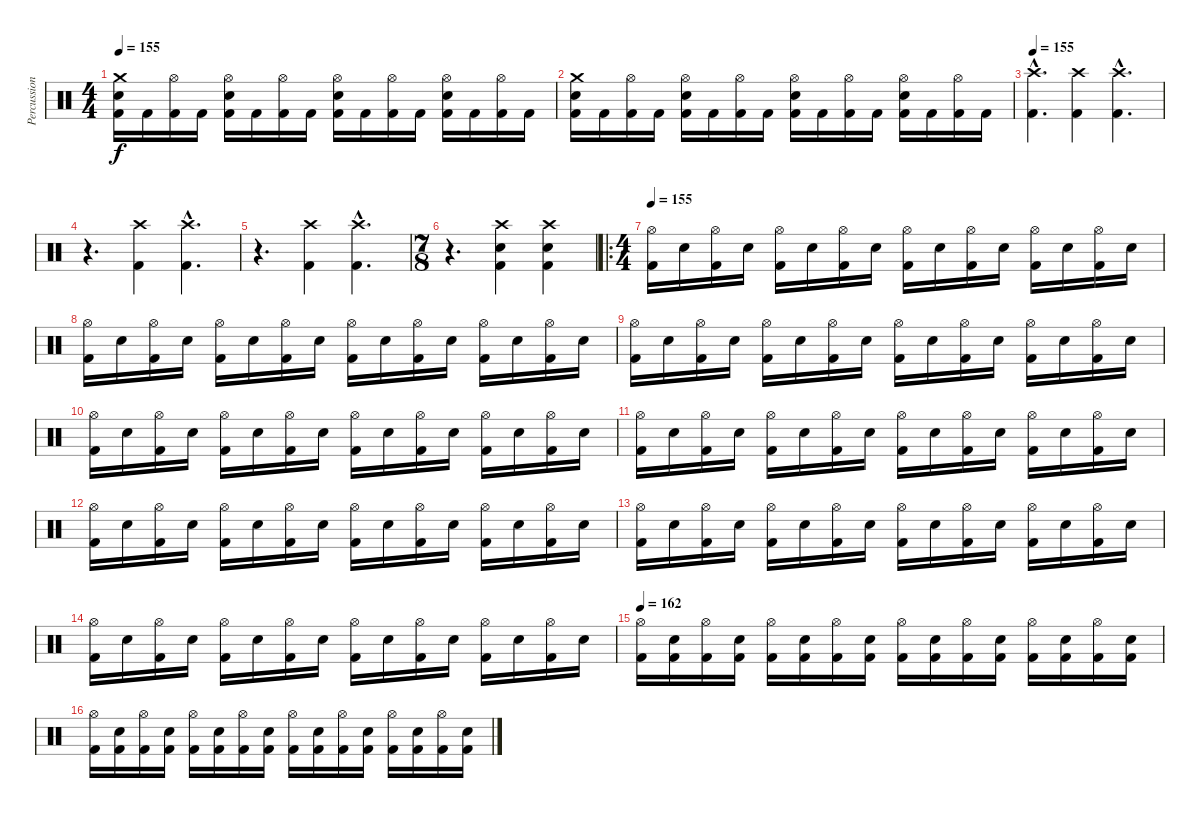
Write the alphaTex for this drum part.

\track ("Percussion" "Percussion") {instrument percussion}
\staff {score}
\articulation defaults
\ts (4 4)
\tempo 155
\clef neutral
\ks c
("Crash medium (hit)" "Electric Snare (hit)" "Kick (hit) 2").16{dy f} "Kick (hit) 2".16 ("Hi-Hat (open)" "Kick (hit) 2").16 "Kick (hit) 2".16 ("Hi-Hat (open)" "Electric Snare (hit)" "Kick (hit) 2").16 "Kick (hit) 2".16 ("Hi-Hat (open)" "Kick (hit) 2").16 "Kick (hit) 2".16 ("Hi-Hat (open)" "Electric Snare (hit)" "Kick (hit) 2").16 "Kick (hit) 2".16 ("Hi-Hat (open)" "Kick (hit) 2").16 "Kick (hit) 2".16 ("Hi-Hat (open)" "Electric Snare (hit)" "Kick (hit) 2").16 "Kick (hit) 2".16 ("Hi-Hat (open)" "Kick (hit) 2").16 "Kick (hit) 2".16 |
("Crash medium (hit)" "Electric Snare (hit)" "Kick (hit) 2").16 "Kick (hit) 2".16 ("Hi-Hat (open)" "Kick (hit) 2").16 "Kick (hit) 2".16 ("Hi-Hat (open)" "Electric Snare (hit)" "Kick (hit) 2").16 "Kick (hit) 2".16 ("Hi-Hat (open)" "Kick (hit) 2").16 "Kick (hit) 2".16 ("Hi-Hat (open)" "Electric Snare (hit)" "Kick (hit) 2").16 "Kick (hit) 2".16 ("Hi-Hat (open)" "Kick (hit) 2").16 "Kick (hit) 2".16 ("Hi-Hat (open)" "Electric Snare (hit)" "Kick (hit) 2").16 "Kick (hit) 2".16 ("Hi-Hat (open)" "Kick (hit) 2").16 "Kick (hit) 2".16 |
\tempo 155
("Crash high (hit)"{hac} "Kick (hit) 2"{hac}).4{d} ("Crash high (hit)" "Kick (hit) 2").4 ("Crash high (hit)"{hac} "Kick (hit) 2"{hac}).4{d} |
r.4{d} ("Crash high (hit)" "Kick (hit) 2").4 ("Crash high (hit)"{hac} "Kick (hit) 2"{hac}).4{d} |
r.4{d} ("Crash high (hit)" "Kick (hit) 2").4 ("Crash high (hit)"{hac} "Kick (hit) 2"{hac}).4{d} |
\ts (7 8)
r.4{d} ("Crash high (hit)" "Electric Snare (hit)" "Kick (hit) 2").4 ("Crash high (hit)" "Electric Snare (hit)" "Kick (hit) 2").4 |
\ro
\ts (4 4)
\tempo 155
("Hi-Hat (open)" "Kick (hit) 2").16 "Electric Snare (hit)".16 ("Hi-Hat (open)" "Kick (hit) 2").16 "Electric Snare (hit)".16 ("Hi-Hat (open)" "Kick (hit) 2").16 "Electric Snare (hit)".16 ("Hi-Hat (open)" "Kick (hit) 2").16 "Electric Snare (hit)".16 ("Hi-Hat (open)" "Kick (hit) 2").16 "Electric Snare (hit)".16 ("Hi-Hat (open)" "Kick (hit) 2").16 "Electric Snare (hit)".16 ("Hi-Hat (open)" "Kick (hit) 2").16 "Electric Snare (hit)".16 ("Hi-Hat (open)" "Kick (hit) 2").16 "Electric Snare (hit)".16 |
("Hi-Hat (open)" "Kick (hit) 2").16 "Electric Snare (hit)".16 ("Hi-Hat (open)" "Kick (hit) 2").16 "Electric Snare (hit)".16 ("Hi-Hat (open)" "Kick (hit) 2").16 "Electric Snare (hit)".16 ("Hi-Hat (open)" "Kick (hit) 2").16 "Electric Snare (hit)".16 ("Hi-Hat (open)" "Kick (hit) 2").16 "Electric Snare (hit)".16 ("Hi-Hat (open)" "Kick (hit) 2").16 "Electric Snare (hit)".16 ("Hi-Hat (open)" "Kick (hit) 2").16 "Electric Snare (hit)".16 ("Hi-Hat (open)" "Kick (hit) 2").16 "Electric Snare (hit)".16 |
("Hi-Hat (open)" "Kick (hit) 2").16 "Electric Snare (hit)".16 ("Hi-Hat (open)" "Kick (hit) 2").16 "Electric Snare (hit)".16 ("Hi-Hat (open)" "Kick (hit) 2").16 "Electric Snare (hit)".16 ("Hi-Hat (open)" "Kick (hit) 2").16 "Electric Snare (hit)".16 ("Hi-Hat (open)" "Kick (hit) 2").16 "Electric Snare (hit)".16 ("Hi-Hat (open)" "Kick (hit) 2").16 "Electric Snare (hit)".16 ("Hi-Hat (open)" "Kick (hit) 2").16 "Electric Snare (hit)".16 ("Hi-Hat (open)" "Kick (hit) 2").16 "Electric Snare (hit)".16 |
("Hi-Hat (open)" "Kick (hit) 2").16 "Electric Snare (hit)".16 ("Hi-Hat (open)" "Kick (hit) 2").16 "Electric Snare (hit)".16 ("Hi-Hat (open)" "Kick (hit) 2").16 "Electric Snare (hit)".16 ("Hi-Hat (open)" "Kick (hit) 2").16 "Electric Snare (hit)".16 ("Hi-Hat (open)" "Kick (hit) 2").16 "Electric Snare (hit)".16 ("Hi-Hat (open)" "Kick (hit) 2").16 "Electric Snare (hit)".16 ("Hi-Hat (open)" "Kick (hit) 2").16 "Electric Snare (hit)".16 ("Hi-Hat (open)" "Kick (hit) 2").16 "Electric Snare (hit)".16 |
("Hi-Hat (open)" "Kick (hit) 2").16 "Electric Snare (hit)".16 ("Hi-Hat (open)" "Kick (hit) 2").16 "Electric Snare (hit)".16 ("Hi-Hat (open)" "Kick (hit) 2").16 "Electric Snare (hit)".16 ("Hi-Hat (open)" "Kick (hit) 2").16 "Electric Snare (hit)".16 ("Hi-Hat (open)" "Kick (hit) 2").16 "Electric Snare (hit)".16 ("Hi-Hat (open)" "Kick (hit) 2").16 "Electric Snare (hit)".16 ("Hi-Hat (open)" "Kick (hit) 2").16 "Electric Snare (hit)".16 ("Hi-Hat (open)" "Kick (hit) 2").16 "Electric Snare (hit)".16 |
("Hi-Hat (open)" "Kick (hit) 2").16 "Electric Snare (hit)".16 ("Hi-Hat (open)" "Kick (hit) 2").16 "Electric Snare (hit)".16 ("Hi-Hat (open)" "Kick (hit) 2").16 "Electric Snare (hit)".16 ("Hi-Hat (open)" "Kick (hit) 2").16 "Electric Snare (hit)".16 ("Hi-Hat (open)" "Kick (hit) 2").16 "Electric Snare (hit)".16 ("Hi-Hat (open)" "Kick (hit) 2").16 "Electric Snare (hit)".16 ("Hi-Hat (open)" "Kick (hit) 2").16 "Electric Snare (hit)".16 ("Hi-Hat (open)" "Kick (hit) 2").16 "Electric Snare (hit)".16 |
("Hi-Hat (open)" "Kick (hit) 2").16 "Electric Snare (hit)".16 ("Hi-Hat (open)" "Kick (hit) 2").16 "Electric Snare (hit)".16 ("Hi-Hat (open)" "Kick (hit) 2").16 "Electric Snare (hit)".16 ("Hi-Hat (open)" "Kick (hit) 2").16 "Electric Snare (hit)".16 ("Hi-Hat (open)" "Kick (hit) 2").16 "Electric Snare (hit)".16 ("Hi-Hat (open)" "Kick (hit) 2").16 "Electric Snare (hit)".16 ("Hi-Hat (open)" "Kick (hit) 2").16 "Electric Snare (hit)".16 ("Hi-Hat (open)" "Kick (hit) 2").16 "Electric Snare (hit)".16 |
("Hi-Hat (open)" "Kick (hit) 2").16 "Electric Snare (hit)".16 ("Hi-Hat (open)" "Kick (hit) 2").16 "Electric Snare (hit)".16 ("Hi-Hat (open)" "Kick (hit) 2").16 "Electric Snare (hit)".16 ("Hi-Hat (open)" "Kick (hit) 2").16 "Electric Snare (hit)".16 ("Hi-Hat (open)" "Kick (hit) 2").16 "Electric Snare (hit)".16 ("Hi-Hat (open)" "Kick (hit) 2").16 "Electric Snare (hit)".16 ("Hi-Hat (open)" "Kick (hit) 2").16 "Electric Snare (hit)".16 ("Hi-Hat (open)" "Kick (hit) 2").16 "Electric Snare (hit)".16 |
\tempo 162
("Hi-Hat (open)" "Kick (hit) 2").16 ("Electric Snare (hit)" "Kick (hit) 2").16 ("Hi-Hat (open)" "Kick (hit) 2").16 ("Electric Snare (hit)" "Kick (hit) 2").16 ("Hi-Hat (open)" "Kick (hit) 2").16 ("Electric Snare (hit)" "Kick (hit) 2").16 ("Hi-Hat (open)" "Kick (hit) 2").16 ("Electric Snare (hit)" "Kick (hit) 2").16 ("Hi-Hat (open)" "Kick (hit) 2").16 ("Electric Snare (hit)" "Kick (hit) 2").16 ("Hi-Hat (open)" "Kick (hit) 2").16 ("Electric Snare (hit)" "Kick (hit) 2").16 ("Hi-Hat (open)" "Kick (hit) 2").16 ("Electric Snare (hit)" "Kick (hit) 2").16 ("Hi-Hat (open)" "Kick (hit) 2").16 ("Electric Snare (hit)" "Kick (hit) 2").16 |
("Hi-Hat (open)" "Kick (hit) 2").16 ("Electric Snare (hit)" "Kick (hit) 2").16 ("Hi-Hat (open)" "Kick (hit) 2").16 ("Electric Snare (hit)" "Kick (hit) 2").16 ("Hi-Hat (open)" "Kick (hit) 2").16 ("Electric Snare (hit)" "Kick (hit) 2").16 ("Hi-Hat (open)" "Kick (hit) 2").16 ("Electric Snare (hit)" "Kick (hit) 2").16 ("Hi-Hat (open)" "Kick (hit) 2").16 ("Electric Snare (hit)" "Kick (hit) 2").16 ("Hi-Hat (open)" "Kick (hit) 2").16 ("Electric Snare (hit)" "Kick (hit) 2").16 ("Hi-Hat (open)" "Kick (hit) 2").16 ("Electric Snare (hit)" "Kick (hit) 2").16 ("Hi-Hat (open)" "Kick (hit) 2").16 ("Electric Snare (hit)" "Kick (hit) 2").16
